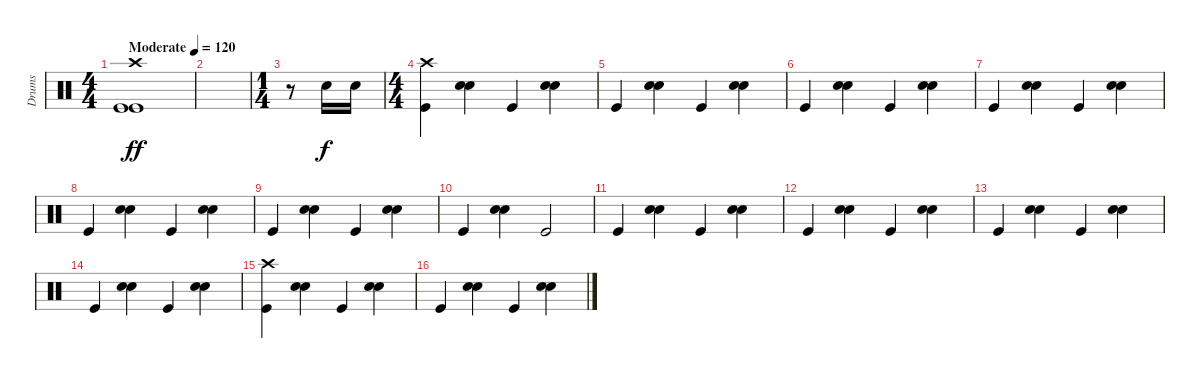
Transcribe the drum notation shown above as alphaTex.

\track ("Drums" "Drums") {instrument percussion}
\staff {score}
\articulation defaults
\ts (4 4)
\tempo (120 "Moderate")
\clef neutral
\ks c
("Kick (hit)" "Kick (hit)" "Crash high (hit)").1{dy ff} |
|
\ts (1 4)
r.8 "Snare (hit) 2".16{dy f} "Snare (hit) 2".16 |
\ts (4 4)
("Kick (hit)" "Crash high (hit)").4 ("Snare (hit) 2" "Hand Clap (hit)").4 "Kick (hit)".4 ("Snare (hit) 2" "Hand Clap (hit)").4 |
"Kick (hit)".4 ("Snare (hit) 2" "Hand Clap (hit)").4 "Kick (hit)".4 ("Snare (hit) 2" "Hand Clap (hit)").4 |
"Kick (hit)".4 ("Snare (hit) 2" "Hand Clap (hit)").4 "Kick (hit)".4 ("Snare (hit) 2" "Hand Clap (hit)").4 |
"Kick (hit)".4 ("Snare (hit) 2" "Hand Clap (hit)").4 "Kick (hit)".4 ("Snare (hit) 2" "Hand Clap (hit)").4 |
"Kick (hit)".4 ("Snare (hit) 2" "Hand Clap (hit)").4 "Kick (hit)".4 ("Snare (hit) 2" "Hand Clap (hit)").4 |
"Kick (hit)".4 ("Snare (hit) 2" "Hand Clap (hit)").4 "Kick (hit)".4 ("Snare (hit) 2" "Hand Clap (hit)").4 |
"Kick (hit)".4 ("Snare (hit) 2" "Hand Clap (hit)").4 "Kick (hit)".2 |
"Kick (hit)".4 ("Snare (hit) 2" "Hand Clap (hit)").4 "Kick (hit)".4 ("Snare (hit) 2" "Hand Clap (hit)").4 |
"Kick (hit)".4 ("Snare (hit) 2" "Hand Clap (hit)").4 "Kick (hit)".4 ("Snare (hit) 2" "Hand Clap (hit)").4 |
"Kick (hit)".4 ("Snare (hit) 2" "Hand Clap (hit)").4 "Kick (hit)".4 ("Snare (hit) 2" "Hand Clap (hit)").4 |
"Kick (hit)".4 ("Snare (hit) 2" "Hand Clap (hit)").4 "Kick (hit)".4 ("Snare (hit) 2" "Hand Clap (hit)").4 |
("Kick (hit)" "Crash high (hit)").4 ("Snare (hit) 2" "Hand Clap (hit)").4 "Kick (hit)".4 ("Snare (hit) 2" "Hand Clap (hit)").4 |
"Kick (hit)".4 ("Snare (hit) 2" "Hand Clap (hit)").4 "Kick (hit)".4 ("Snare (hit) 2" "Hand Clap (hit)").4
